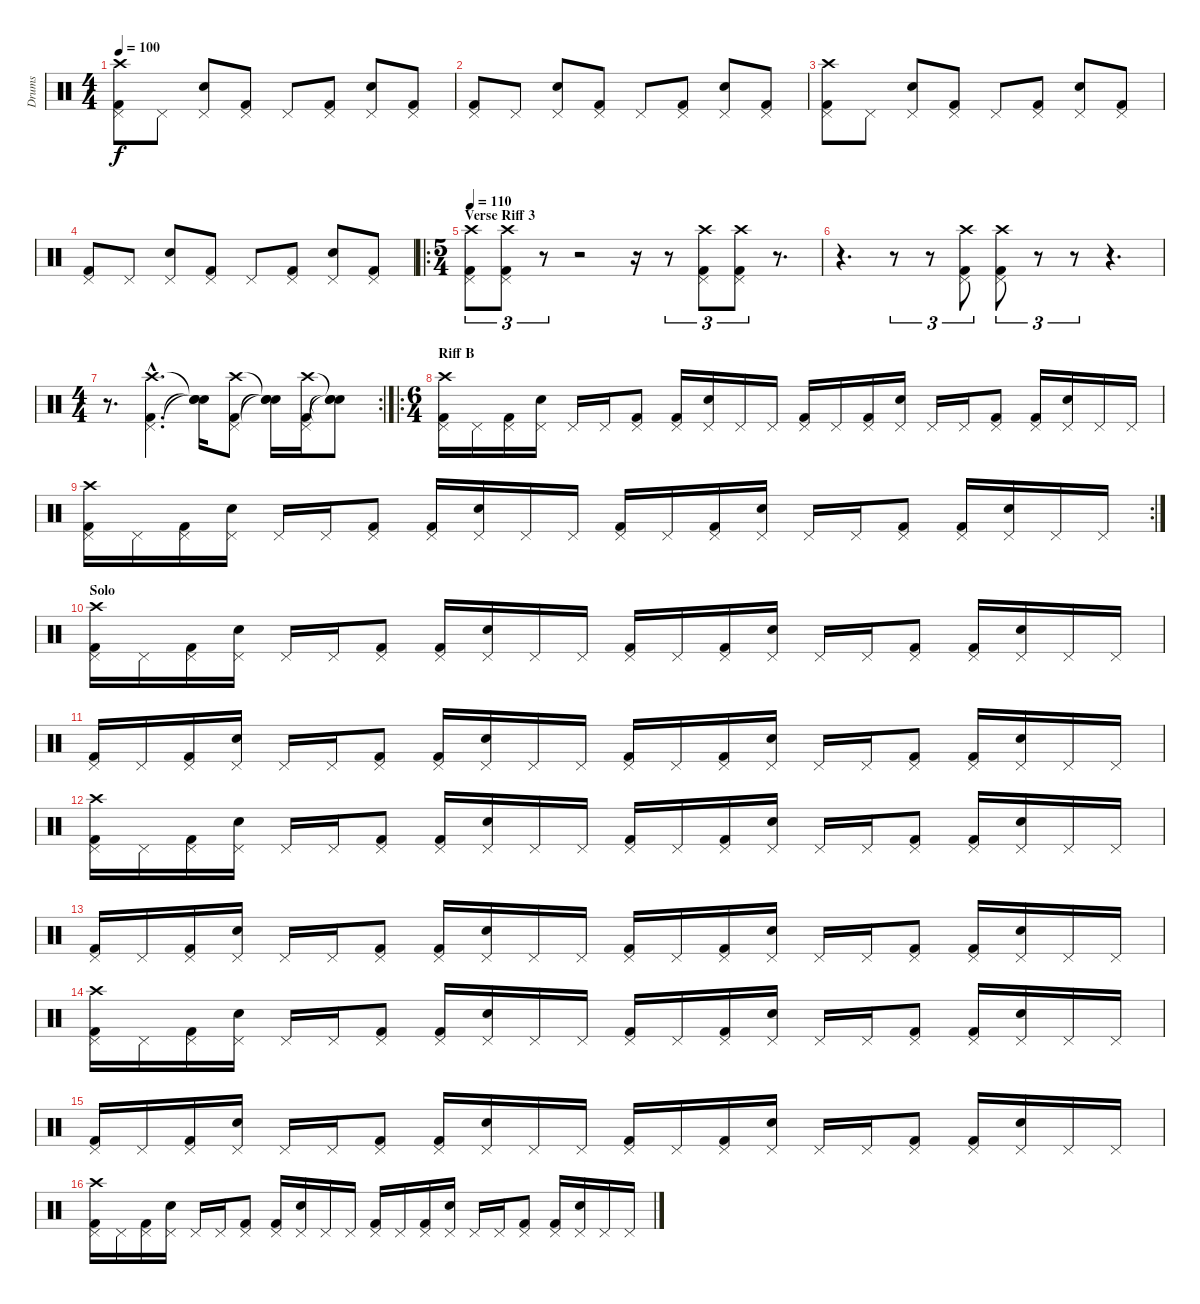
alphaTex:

\track ("Drums" "Drums") {instrument percussion}
\staff {score}
\articulation defaults
\ts (4 4)
\tempo 100
\clef neutral
\ks c
("Kick (hit) 2" "Pedal Hi-Hat (hit)" "Crash high (hit)").8{dy f} "Pedal Hi-Hat (hit)".8 ("Snare (hit) 2" "Pedal Hi-Hat (hit)").8 ("Kick (hit) 2" "Pedal Hi-Hat (hit)").8 "Pedal Hi-Hat (hit)".8 ("Kick (hit) 2" "Pedal Hi-Hat (hit)").8 ("Snare (hit) 2" "Pedal Hi-Hat (hit)").8 ("Kick (hit) 2" "Pedal Hi-Hat (hit)").8 |
("Kick (hit) 2" "Pedal Hi-Hat (hit)").8 "Pedal Hi-Hat (hit)".8 ("Snare (hit) 2" "Pedal Hi-Hat (hit)").8 ("Kick (hit) 2" "Pedal Hi-Hat (hit)").8 "Pedal Hi-Hat (hit)".8 ("Kick (hit) 2" "Pedal Hi-Hat (hit)").8 ("Snare (hit) 2" "Pedal Hi-Hat (hit)").8 ("Kick (hit) 2" "Pedal Hi-Hat (hit)").8 |
("Kick (hit) 2" "Pedal Hi-Hat (hit)" "Crash high (hit)").8 "Pedal Hi-Hat (hit)".8 ("Snare (hit) 2" "Pedal Hi-Hat (hit)").8 ("Kick (hit) 2" "Pedal Hi-Hat (hit)").8 "Pedal Hi-Hat (hit)".8 ("Kick (hit) 2" "Pedal Hi-Hat (hit)").8 ("Snare (hit) 2" "Pedal Hi-Hat (hit)").8 ("Kick (hit) 2" "Pedal Hi-Hat (hit)").8 |
("Kick (hit) 2" "Pedal Hi-Hat (hit)").8 "Pedal Hi-Hat (hit)".8 ("Snare (hit) 2" "Pedal Hi-Hat (hit)").8 ("Kick (hit) 2" "Pedal Hi-Hat (hit)").8 "Pedal Hi-Hat (hit)".8 ("Kick (hit) 2" "Pedal Hi-Hat (hit)").8 ("Snare (hit) 2" "Pedal Hi-Hat (hit)").8 ("Kick (hit) 2" "Pedal Hi-Hat (hit)").8 |
\ro
\ts (5 4)
\section ("" "Verse Riff 3")
\tempo 110
("Kick (hit) 2" "Pedal Hi-Hat (hit)" "Crash high (hit)").8{tu (3 2)} ("Kick (hit) 2" "Pedal Hi-Hat (hit)" "Crash high (hit)").8{tu (3 2)} r.8{tu (3 2)} r.2 r.16 r.8{tu (3 2)} ("Kick (hit) 2" "Pedal Hi-Hat (hit)" "Crash high (hit)").8{tu (3 2)} ("Kick (hit) 2" "Pedal Hi-Hat (hit)" "Crash high (hit)").8{tu (3 2)} r.8{d} |
r.4{d} r.8{tu (3 2)} r.8{tu (3 2)} ("Kick (hit) 2" "Pedal Hi-Hat (hit)" "Crash high (hit)").8{tu (3 2)} ("Kick (hit) 2" "Pedal Hi-Hat (hit)" "Crash high (hit)").8{tu (3 2)} r.8{tu (3 2)} r.8{tu (3 2)} r.4{d} |
\rc 2
\ts (4 4)
r.8{d} ("Kick (hit) 2"{hac} "Pedal Hi-Hat (hit)"{hac} "Crash high (hit)"{hac}).4{d} ("Snare (hit)"{t} "Snare (hit)"{t} "Snare (hit)"{t}).16 ("Kick (hit) 2" "Pedal Hi-Hat (hit)" "Crash high (hit)").8 ("Snare (hit)"{t} "Snare (hit)"{t} "Snare (hit)"{t}).16 ("Kick (hit) 2" "Pedal Hi-Hat (hit)" "Crash high (hit)").16 ("Snare (hit)"{t} "Snare (hit)"{t} "Snare (hit)"{t}).8 |
\ro
\ts (6 4)
\section ("" "Riff B")
("Kick (hit) 2" "Pedal Hi-Hat (hit)" "Crash high (hit)").16 "Pedal Hi-Hat (hit)".16 ("Kick (hit) 2" "Pedal Hi-Hat (hit)").16 ("Snare (hit) 2" "Pedal Hi-Hat (hit)").16 "Pedal Hi-Hat (hit)".16 "Pedal Hi-Hat (hit)".16 ("Kick (hit) 2" "Pedal Hi-Hat (hit)").8 ("Kick (hit) 2" "Pedal Hi-Hat (hit)").16 ("Snare (hit) 2" "Pedal Hi-Hat (hit)").16 "Pedal Hi-Hat (hit)".16 "Pedal Hi-Hat (hit)".16 ("Kick (hit) 2" "Pedal Hi-Hat (hit)").16 "Pedal Hi-Hat (hit)".16 ("Kick (hit) 2" "Pedal Hi-Hat (hit)").16 ("Snare (hit) 2" "Pedal Hi-Hat (hit)").16 "Pedal Hi-Hat (hit)".16 "Pedal Hi-Hat (hit)".16 ("Kick (hit) 2" "Pedal Hi-Hat (hit)").8 ("Kick (hit) 2" "Pedal Hi-Hat (hit)").16 ("Snare (hit) 2" "Pedal Hi-Hat (hit)").16 "Pedal Hi-Hat (hit)".16 "Pedal Hi-Hat (hit)".16 |
\rc 2
("Kick (hit) 2" "Pedal Hi-Hat (hit)" "Crash high (hit)").16 "Pedal Hi-Hat (hit)".16 ("Kick (hit) 2" "Pedal Hi-Hat (hit)").16 ("Snare (hit) 2" "Pedal Hi-Hat (hit)").16 "Pedal Hi-Hat (hit)".16 "Pedal Hi-Hat (hit)".16 ("Kick (hit) 2" "Pedal Hi-Hat (hit)").8 ("Kick (hit) 2" "Pedal Hi-Hat (hit)").16 ("Snare (hit) 2" "Pedal Hi-Hat (hit)").16 "Pedal Hi-Hat (hit)".16 "Pedal Hi-Hat (hit)".16 ("Kick (hit) 2" "Pedal Hi-Hat (hit)").16 "Pedal Hi-Hat (hit)".16 ("Kick (hit) 2" "Pedal Hi-Hat (hit)").16 ("Snare (hit) 2" "Pedal Hi-Hat (hit)").16 "Pedal Hi-Hat (hit)".16 "Pedal Hi-Hat (hit)".16 ("Kick (hit) 2" "Pedal Hi-Hat (hit)").8 ("Kick (hit) 2" "Pedal Hi-Hat (hit)").16 ("Snare (hit) 2" "Pedal Hi-Hat (hit)").16 "Pedal Hi-Hat (hit)".16 "Pedal Hi-Hat (hit)".16 |
\section ("" "Solo")
("Kick (hit) 2" "Pedal Hi-Hat (hit)" "Crash high (hit)").16 "Pedal Hi-Hat (hit)".16 ("Kick (hit) 2" "Pedal Hi-Hat (hit)").16 ("Snare (hit) 2" "Pedal Hi-Hat (hit)").16 "Pedal Hi-Hat (hit)".16 "Pedal Hi-Hat (hit)".16 ("Kick (hit) 2" "Pedal Hi-Hat (hit)").8 ("Kick (hit) 2" "Pedal Hi-Hat (hit)").16 ("Snare (hit) 2" "Pedal Hi-Hat (hit)").16 "Pedal Hi-Hat (hit)".16 "Pedal Hi-Hat (hit)".16 ("Kick (hit) 2" "Pedal Hi-Hat (hit)").16 "Pedal Hi-Hat (hit)".16 ("Kick (hit) 2" "Pedal Hi-Hat (hit)").16 ("Snare (hit) 2" "Pedal Hi-Hat (hit)").16 "Pedal Hi-Hat (hit)".16 "Pedal Hi-Hat (hit)".16 ("Kick (hit) 2" "Pedal Hi-Hat (hit)").8 ("Kick (hit) 2" "Pedal Hi-Hat (hit)").16 ("Snare (hit) 2" "Pedal Hi-Hat (hit)").16 "Pedal Hi-Hat (hit)".16 "Pedal Hi-Hat (hit)".16 |
("Kick (hit) 2" "Pedal Hi-Hat (hit)").16 "Pedal Hi-Hat (hit)".16 ("Kick (hit) 2" "Pedal Hi-Hat (hit)").16 ("Snare (hit) 2" "Pedal Hi-Hat (hit)").16 "Pedal Hi-Hat (hit)".16 "Pedal Hi-Hat (hit)".16 ("Kick (hit) 2" "Pedal Hi-Hat (hit)").8 ("Kick (hit) 2" "Pedal Hi-Hat (hit)").16 ("Snare (hit) 2" "Pedal Hi-Hat (hit)").16 "Pedal Hi-Hat (hit)".16 "Pedal Hi-Hat (hit)".16 ("Kick (hit) 2" "Pedal Hi-Hat (hit)").16 "Pedal Hi-Hat (hit)".16 ("Kick (hit) 2" "Pedal Hi-Hat (hit)").16 ("Snare (hit) 2" "Pedal Hi-Hat (hit)").16 "Pedal Hi-Hat (hit)".16 "Pedal Hi-Hat (hit)".16 ("Kick (hit) 2" "Pedal Hi-Hat (hit)").8 ("Kick (hit) 2" "Pedal Hi-Hat (hit)").16 ("Snare (hit) 2" "Pedal Hi-Hat (hit)").16 "Pedal Hi-Hat (hit)".16 "Pedal Hi-Hat (hit)".16 |
("Kick (hit) 2" "Pedal Hi-Hat (hit)" "Crash high (hit)").16 "Pedal Hi-Hat (hit)".16 ("Kick (hit) 2" "Pedal Hi-Hat (hit)").16 ("Snare (hit) 2" "Pedal Hi-Hat (hit)").16 "Pedal Hi-Hat (hit)".16 "Pedal Hi-Hat (hit)".16 ("Kick (hit) 2" "Pedal Hi-Hat (hit)").8 ("Kick (hit) 2" "Pedal Hi-Hat (hit)").16 ("Snare (hit) 2" "Pedal Hi-Hat (hit)").16 "Pedal Hi-Hat (hit)".16 "Pedal Hi-Hat (hit)".16 ("Kick (hit) 2" "Pedal Hi-Hat (hit)").16 "Pedal Hi-Hat (hit)".16 ("Kick (hit) 2" "Pedal Hi-Hat (hit)").16 ("Snare (hit) 2" "Pedal Hi-Hat (hit)").16 "Pedal Hi-Hat (hit)".16 "Pedal Hi-Hat (hit)".16 ("Kick (hit) 2" "Pedal Hi-Hat (hit)").8 ("Kick (hit) 2" "Pedal Hi-Hat (hit)").16 ("Snare (hit) 2" "Pedal Hi-Hat (hit)").16 "Pedal Hi-Hat (hit)".16 "Pedal Hi-Hat (hit)".16 |
("Kick (hit) 2" "Pedal Hi-Hat (hit)").16 "Pedal Hi-Hat (hit)".16 ("Kick (hit) 2" "Pedal Hi-Hat (hit)").16 ("Snare (hit) 2" "Pedal Hi-Hat (hit)").16 "Pedal Hi-Hat (hit)".16 "Pedal Hi-Hat (hit)".16 ("Kick (hit) 2" "Pedal Hi-Hat (hit)").8 ("Kick (hit) 2" "Pedal Hi-Hat (hit)").16 ("Snare (hit) 2" "Pedal Hi-Hat (hit)").16 "Pedal Hi-Hat (hit)".16 "Pedal Hi-Hat (hit)".16 ("Kick (hit) 2" "Pedal Hi-Hat (hit)").16 "Pedal Hi-Hat (hit)".16 ("Kick (hit) 2" "Pedal Hi-Hat (hit)").16 ("Snare (hit) 2" "Pedal Hi-Hat (hit)").16 "Pedal Hi-Hat (hit)".16 "Pedal Hi-Hat (hit)".16 ("Kick (hit) 2" "Pedal Hi-Hat (hit)").8 ("Kick (hit) 2" "Pedal Hi-Hat (hit)").16 ("Snare (hit) 2" "Pedal Hi-Hat (hit)").16 "Pedal Hi-Hat (hit)".16 "Pedal Hi-Hat (hit)".16 |
("Kick (hit) 2" "Pedal Hi-Hat (hit)" "Crash high (hit)").16 "Pedal Hi-Hat (hit)".16 ("Kick (hit) 2" "Pedal Hi-Hat (hit)").16 ("Snare (hit) 2" "Pedal Hi-Hat (hit)").16 "Pedal Hi-Hat (hit)".16 "Pedal Hi-Hat (hit)".16 ("Kick (hit) 2" "Pedal Hi-Hat (hit)").8 ("Kick (hit) 2" "Pedal Hi-Hat (hit)").16 ("Snare (hit) 2" "Pedal Hi-Hat (hit)").16 "Pedal Hi-Hat (hit)".16 "Pedal Hi-Hat (hit)".16 ("Kick (hit) 2" "Pedal Hi-Hat (hit)").16 "Pedal Hi-Hat (hit)".16 ("Kick (hit) 2" "Pedal Hi-Hat (hit)").16 ("Snare (hit) 2" "Pedal Hi-Hat (hit)").16 "Pedal Hi-Hat (hit)".16 "Pedal Hi-Hat (hit)".16 ("Kick (hit) 2" "Pedal Hi-Hat (hit)").8 ("Kick (hit) 2" "Pedal Hi-Hat (hit)").16 ("Snare (hit) 2" "Pedal Hi-Hat (hit)").16 "Pedal Hi-Hat (hit)".16 "Pedal Hi-Hat (hit)".16 |
("Kick (hit) 2" "Pedal Hi-Hat (hit)").16 "Pedal Hi-Hat (hit)".16 ("Kick (hit) 2" "Pedal Hi-Hat (hit)").16 ("Snare (hit) 2" "Pedal Hi-Hat (hit)").16 "Pedal Hi-Hat (hit)".16 "Pedal Hi-Hat (hit)".16 ("Kick (hit) 2" "Pedal Hi-Hat (hit)").8 ("Kick (hit) 2" "Pedal Hi-Hat (hit)").16 ("Snare (hit) 2" "Pedal Hi-Hat (hit)").16 "Pedal Hi-Hat (hit)".16 "Pedal Hi-Hat (hit)".16 ("Kick (hit) 2" "Pedal Hi-Hat (hit)").16 "Pedal Hi-Hat (hit)".16 ("Kick (hit) 2" "Pedal Hi-Hat (hit)").16 ("Snare (hit) 2" "Pedal Hi-Hat (hit)").16 "Pedal Hi-Hat (hit)".16 "Pedal Hi-Hat (hit)".16 ("Kick (hit) 2" "Pedal Hi-Hat (hit)").8 ("Kick (hit) 2" "Pedal Hi-Hat (hit)").16 ("Snare (hit) 2" "Pedal Hi-Hat (hit)").16 "Pedal Hi-Hat (hit)".16 "Pedal Hi-Hat (hit)".16 |
("Kick (hit) 2" "Pedal Hi-Hat (hit)" "Crash high (hit)").16 "Pedal Hi-Hat (hit)".16 ("Kick (hit) 2" "Pedal Hi-Hat (hit)").16 ("Snare (hit) 2" "Pedal Hi-Hat (hit)").16 "Pedal Hi-Hat (hit)".16 "Pedal Hi-Hat (hit)".16 ("Kick (hit) 2" "Pedal Hi-Hat (hit)").8 ("Kick (hit) 2" "Pedal Hi-Hat (hit)").16 ("Snare (hit) 2" "Pedal Hi-Hat (hit)").16 "Pedal Hi-Hat (hit)".16 "Pedal Hi-Hat (hit)".16 ("Kick (hit) 2" "Pedal Hi-Hat (hit)").16 "Pedal Hi-Hat (hit)".16 ("Kick (hit) 2" "Pedal Hi-Hat (hit)").16 ("Snare (hit) 2" "Pedal Hi-Hat (hit)").16 "Pedal Hi-Hat (hit)".16 "Pedal Hi-Hat (hit)".16 ("Kick (hit) 2" "Pedal Hi-Hat (hit)").8 ("Kick (hit) 2" "Pedal Hi-Hat (hit)").16 ("Snare (hit) 2" "Pedal Hi-Hat (hit)").16 "Pedal Hi-Hat (hit)".16 "Pedal Hi-Hat (hit)".16
